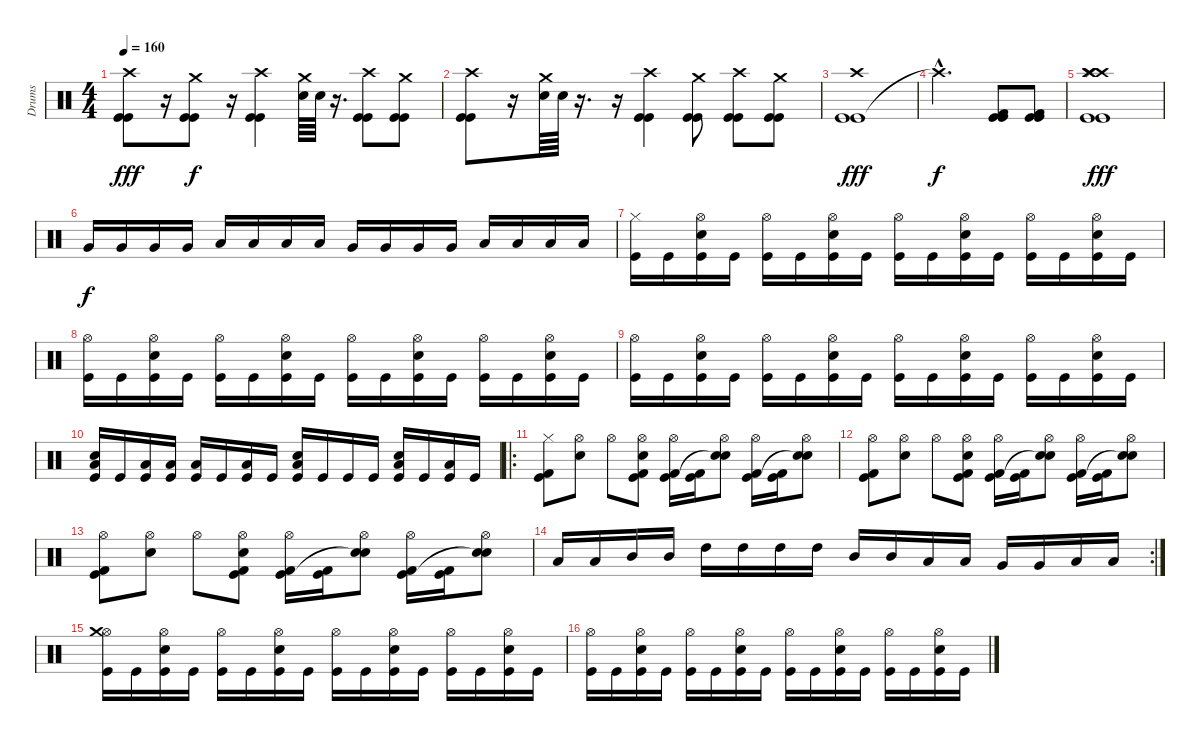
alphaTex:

\track ("Drums" "Drums") {instrument percussion}
\staff {score}
\articulation defaults
\ts (4 4)
\tempo 160
\clef neutral
\ks c
("Kick (hit)" "Kick (hit)" "Crash high (hit)").8{dy fff} r.16 ("Kick (hit)" "Kick (hit)" "Crash medium (hit)").8{dy f} r.16 ("Kick (hit)" "Kick (hit)" "Crash high (hit)").4 ("Electric Snare (hit)" "Crash medium (hit)").64 "Electric Snare (hit)".64 r.16{d} ("Kick (hit)" "Kick (hit)" "Crash high (hit)").8 ("Kick (hit)" "Kick (hit)" "Crash medium (hit)").8 |
("Kick (hit)" "Kick (hit)" "Crash high (hit)").8 r.16 ("Electric Snare (hit)" "Crash medium (hit)").64 "Electric Snare (hit)".64 r.16{d} r.16 ("Kick (hit)" "Kick (hit)" "Crash high (hit)").4 ("Kick (hit)" "Kick (hit)" "Crash medium (hit)").8 ("Kick (hit)" "Kick (hit)" "Crash high (hit)").8 ("Kick (hit)" "Kick (hit)" "Crash medium (hit)").8 |
("Kick (hit)" "Kick (hit)" "Crash high (hit)").1{dy fff} |
"Crash high (hit)"{hac t}.2{d dy f} ("Kick (hit)" "Kick (hit)" "Kick (hit) 2").8 ("Kick (hit)" "Kick (hit)" "Kick (hit) 2").8 |
("Crash high (hit)" "Kick (hit)" "Kick (hit)" "Splash (hit)" "Crash high (hit)" "Crash high (hit)").1{dy fff} |
"Very Low Tom (hit)".16{dy f} "Very Low Tom (hit)".16 "Very Low Tom (hit)".16 "Very Low Tom (hit)".16 "Low Tom (hit)".16 "Low Tom (hit)".16 "Low Tom (hit)".16 "Low Tom (hit)".16 "Very Low Tom (hit)".16 "Very Low Tom (hit)".16 "Very Low Tom (hit)".16 "Very Low Tom (hit)".16 "Low Floor Tom (hit)".16 "Low Floor Tom (hit)".16 "Low Floor Tom (hit)".16 "Low Floor Tom (hit)".16 |
("Kick (hit)" "Hi-Hat (closed)").16 "Kick (hit)".16 ("Electric Snare (hit)" "Kick (hit)" "Hi-Hat (open)").16 "Kick (hit)".16 ("Kick (hit)" "Hi-Hat (open)").16 "Kick (hit)".16 ("Electric Snare (hit)" "Kick (hit)" "Hi-Hat (open)").16 "Kick (hit)".16 ("Kick (hit)" "Hi-Hat (open)").16 "Kick (hit)".16 ("Electric Snare (hit)" "Kick (hit)" "Hi-Hat (open)").16 "Kick (hit)".16 ("Kick (hit)" "Hi-Hat (open)").16 "Kick (hit)".16 ("Electric Snare (hit)" "Kick (hit)" "Hi-Hat (open)").16 "Kick (hit)".16 |
("Kick (hit)" "Hi-Hat (open)").16 "Kick (hit)".16 ("Electric Snare (hit)" "Kick (hit)" "Hi-Hat (open)").16 "Kick (hit)".16 ("Kick (hit)" "Hi-Hat (open)").16 "Kick (hit)".16 ("Electric Snare (hit)" "Kick (hit)" "Hi-Hat (open)").16 "Kick (hit)".16 ("Kick (hit)" "Hi-Hat (open)").16 "Kick (hit)".16 ("Electric Snare (hit)" "Kick (hit)" "Hi-Hat (open)").16 "Kick (hit)".16 ("Kick (hit)" "Hi-Hat (open)").16 "Kick (hit)".16 ("Electric Snare (hit)" "Kick (hit)" "Hi-Hat (open)").16 "Kick (hit)".16 |
("Kick (hit)" "Hi-Hat (open)").16 "Kick (hit)".16 ("Electric Snare (hit)" "Kick (hit)" "Hi-Hat (open)").16 "Kick (hit)".16 ("Kick (hit)" "Hi-Hat (open)").16 "Kick (hit)".16 ("Electric Snare (hit)" "Kick (hit)" "Hi-Hat (open)").16 "Kick (hit)".16 ("Kick (hit)" "Hi-Hat (open)").16 "Kick (hit)".16 ("Electric Snare (hit)" "Kick (hit)" "Hi-Hat (open)").16 "Kick (hit)".16 ("Kick (hit)" "Hi-Hat (open)").16 "Kick (hit)".16 ("Electric Snare (hit)" "Kick (hit)" "Hi-Hat (open)").16 "Kick (hit)".16 |
("Electric Snare (hit)" "Kick (hit)" "Low Floor Tom (hit)").16 "Kick (hit)".16 ("Kick (hit)" "Low Floor Tom (hit)").16 ("Kick (hit)" "Low Floor Tom (hit)").16 ("Kick (hit)" "Low Floor Tom (hit)").16 "Kick (hit)".16 ("Kick (hit)" "Low Floor Tom (hit)").16 "Kick (hit)".16 ("Electric Snare (hit)" "Kick (hit)" "Low Floor Tom (hit)").16 "Kick (hit)".16 "Kick (hit)".16 "Kick (hit)".16 ("Electric Snare (hit)" "Kick (hit)" "Low Floor Tom (hit)").16 "Kick (hit)".16 ("Kick (hit)" "Low Floor Tom (hit)").16 "Kick (hit)".16 |
\ro
("Hi-Hat (closed)" "Kick (hit) 2" "Kick (hit)").8 ("Electric Snare (hit)" "Hi-Hat (open)").8 "Hi-Hat (open)".8 ("Electric Snare (hit)" "Hi-Hat (open)" "Kick (hit) 2" "Kick (hit)").8 ("Hi-Hat (open)" "Kick (hit) 2" "Kick (hit)").16 ("Kick (hit) 2" "Kick (hit)").16 ("Electric Snare (hit)" "Hi-Hat (open)" "Snare (hit)"{t}).8 ("Hi-Hat (open)" "Kick (hit) 2" "Kick (hit)").16 ("Kick (hit) 2" "Kick (hit)").16 ("Electric Snare (hit)" "Hi-Hat (open)" "Snare (hit)"{t}).8 |
("Hi-Hat (open)" "Kick (hit) 2" "Kick (hit)").8 ("Electric Snare (hit)" "Hi-Hat (open)").8 "Hi-Hat (open)".8 ("Electric Snare (hit)" "Hi-Hat (open)" "Kick (hit) 2" "Kick (hit)").8 ("Hi-Hat (open)" "Kick (hit) 2" "Kick (hit)").16 ("Kick (hit) 2" "Kick (hit)").16 ("Electric Snare (hit)" "Hi-Hat (open)" "Snare (hit)"{t}).8 ("Hi-Hat (open)" "Kick (hit) 2" "Kick (hit)").16 ("Kick (hit) 2" "Kick (hit)").16 ("Electric Snare (hit)" "Hi-Hat (open)" "Snare (hit)"{t}).8 |
("Hi-Hat (open)" "Kick (hit) 2" "Kick (hit)").8 ("Electric Snare (hit)" "Hi-Hat (open)").8 "Hi-Hat (open)".8 ("Electric Snare (hit)" "Hi-Hat (open)" "Kick (hit) 2" "Kick (hit)").8 ("Hi-Hat (open)" "Kick (hit) 2" "Kick (hit)").16 ("Kick (hit) 2" "Kick (hit)").16 ("Electric Snare (hit)" "Hi-Hat (open)" "Snare (hit)"{t}).8 ("Hi-Hat (open)" "Kick (hit) 2" "Kick (hit)").16 ("Kick (hit) 2" "Kick (hit)").16 ("Electric Snare (hit)" "Hi-Hat (open)" "Snare (hit)"{t}).8 |
\rc 2 "Low Tom (hit)".16 "Low Tom (hit)".16 "Mid Tom (hit)".16 "Mid Tom (hit)".16 "High Tom (hit)".16 "High Tom (hit)".16 "High Tom (hit)".16 "High Tom (hit)".16 "Mid Tom (hit)".16 "Mid Tom (hit)".16 "Low Tom (hit)".16 "Low Tom (hit)".16 "Very Low Tom (hit)".16 "Very Low Tom (hit)".16 "Low Floor Tom (hit)".16 "Low Floor Tom (hit)".16
|
("Kick (hit)" "Hi-Hat (open)" "Crash medium (hit)").16 "Kick (hit)".16 ("Electric Snare (hit)" "Kick (hit)" "Hi-Hat (open)").16 "Kick (hit)".16 ("Kick (hit)" "Hi-Hat (open)").16 "Kick (hit)".16 ("Electric Snare (hit)" "Kick (hit)" "Hi-Hat (open)").16 "Kick (hit)".16 ("Kick (hit)" "Hi-Hat (open)").16 "Kick (hit)".16 ("Electric Snare (hit)" "Kick (hit)" "Hi-Hat (open)").16 "Kick (hit)".16 ("Kick (hit)" "Hi-Hat (open)").16 "Kick (hit)".16 ("Electric Snare (hit)" "Kick (hit)" "Hi-Hat (open)").16 "Kick (hit)".16 |
("Kick (hit)" "Hi-Hat (open)").16 "Kick (hit)".16 ("Electric Snare (hit)" "Kick (hit)" "Hi-Hat (open)").16 "Kick (hit)".16 ("Kick (hit)" "Hi-Hat (open)").16 "Kick (hit)".16 ("Electric Snare (hit)" "Kick (hit)" "Hi-Hat (open)").16 "Kick (hit)".16 ("Kick (hit)" "Hi-Hat (open)").16 "Kick (hit)".16 ("Electric Snare (hit)" "Kick (hit)" "Hi-Hat (open)").16 "Kick (hit)".16 ("Kick (hit)" "Hi-Hat (open)").16 "Kick (hit)".16 ("Electric Snare (hit)" "Kick (hit)" "Hi-Hat (open)").16 "Kick (hit)".16
